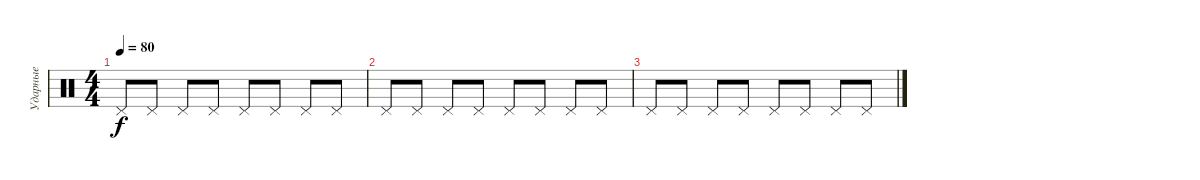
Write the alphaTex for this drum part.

\track ("Ударные" "Ударные") {instrument percussion}
\staff {score}
\articulation defaults
\ts (4 4)
\tempo 80
\clef neutral
\ks c "Pedal Hi-Hat (hit)".8{dy f} "Pedal Hi-Hat (hit)".8 "Pedal Hi-Hat (hit)".8 "Pedal Hi-Hat (hit)".8 "Pedal Hi-Hat (hit)".8 "Pedal Hi-Hat (hit)".8 "Pedal Hi-Hat (hit)".8 "Pedal Hi-Hat (hit)".8
|
"Pedal Hi-Hat (hit)".8 "Pedal Hi-Hat (hit)".8 "Pedal Hi-Hat (hit)".8 "Pedal Hi-Hat (hit)".8 "Pedal Hi-Hat (hit)".8 "Pedal Hi-Hat (hit)".8 "Pedal Hi-Hat (hit)".8 "Pedal Hi-Hat (hit)".8 |
"Pedal Hi-Hat (hit)".8 "Pedal Hi-Hat (hit)".8 "Pedal Hi-Hat (hit)".8 "Pedal Hi-Hat (hit)".8 "Pedal Hi-Hat (hit)".8 "Pedal Hi-Hat (hit)".8 "Pedal Hi-Hat (hit)".8 "Pedal Hi-Hat (hit)".8
